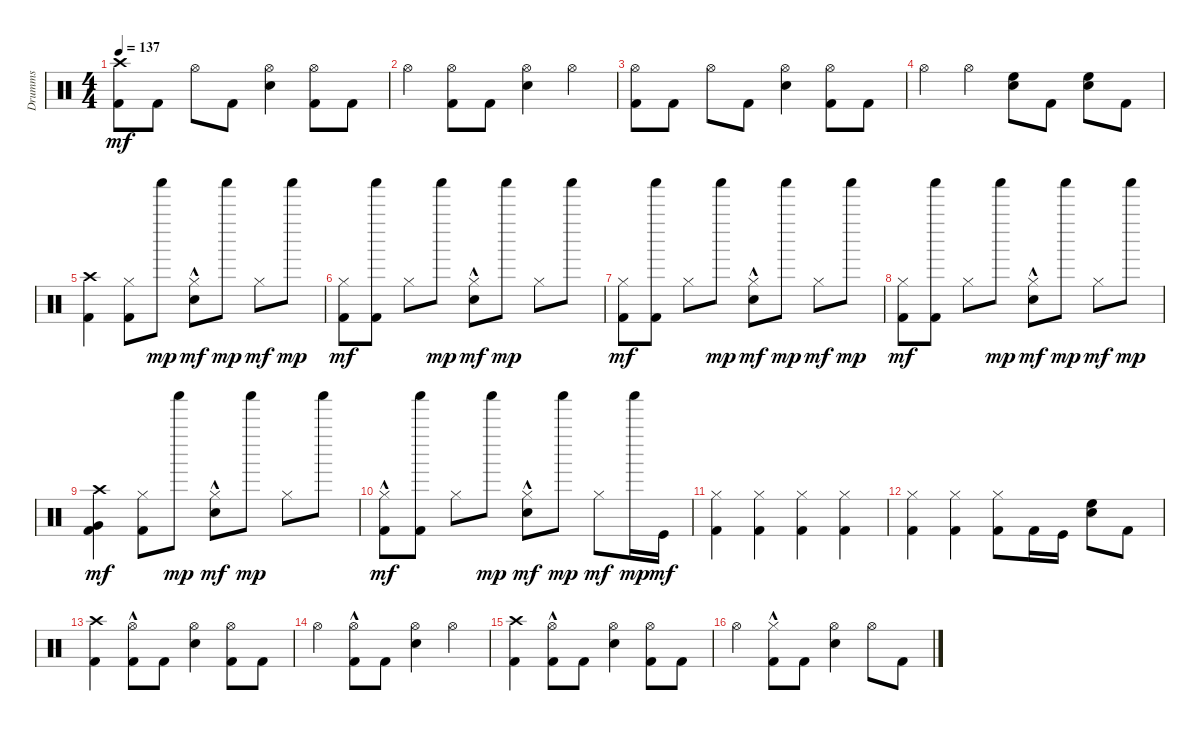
\track ("Drumms" "Drumms") {instrument percussion}
\staff {score}
\articulation defaults
\ts (4 4)
\tempo 137
\clef neutral
\ks c
("Crash high (hit)" "Kick (hit) 2").8{dy mf} "Kick (hit) 2".8 "Hi-Hat (open)".8 "Kick (hit) 2".8 ("Snare (hit) 2" "Hi-Hat (open)").4 ("Hi-Hat (open)" "Kick (hit) 2").8 "Kick (hit) 2".8 |
"Hi-Hat (open)".4 ("Hi-Hat (open)" "Kick (hit) 2").8 "Kick (hit) 2".8 ("Hi-Hat (open)" "Snare (hit) 2").4 "Hi-Hat (open)".4 |
("Hi-Hat (open)" "Kick (hit) 2").8 "Kick (hit) 2".8 "Hi-Hat (open)".8 "Kick (hit) 2".8 ("Hi-Hat (open)" "Snare (hit) 2").4 ("Hi-Hat (open)" "Kick (hit) 2").8 "Kick (hit) 2".8 |
"Hi-Hat (open)".4 "Hi-Hat (open)".4 ("High Floor Tom (hit)" "Snare (hit) 2").8 "Kick (hit) 2".8 ("Snare (hit) 2" "High Floor Tom (hit)").8 "Kick (hit) 2".8 |
\section ("" "")
("Crash high (hit)" "Kick (hit) 2").4 ("Hi-Hat (closed)" "Kick (hit) 2").8 "Shaker (hit)".8{dy mp} ("Hi-Hat (closed)"{hac} "Snare (hit) 2").8{dy mf} "Shaker (hit)".8{dy mp} "Hi-Hat (closed)".8{dy mf} "Shaker (hit)".8{dy mp} |
("Hi-Hat (closed)" "Kick (hit) 2").8{dy mf} ("Shaker (hit)" "Kick (hit) 2").8 "Hi-Hat (closed)".8 "Shaker (hit)".8{dy mp} ("Hi-Hat (closed)"{hac} "Snare (hit) 2").8{dy mf} "Shaker (hit)".8{dy mp} "Hi-Hat (closed)".8 "Shaker (hit)".8 |
("Hi-Hat (closed)" "Kick (hit) 2").8{dy mf} ("Shaker (hit)" "Kick (hit) 2").8 "Hi-Hat (closed)".8 "Shaker (hit)".8{dy mp} ("Hi-Hat (closed)"{hac} "Snare (hit) 2").8{dy mf} "Shaker (hit)".8{dy mp} "Hi-Hat (closed)".8{dy mf} "Shaker (hit)".8{dy mp} |
("Hi-Hat (closed)" "Kick (hit) 2").8{dy mf} ("Shaker (hit)" "Kick (hit) 2").8 "Hi-Hat (closed)".8 "Shaker (hit)".8{dy mp} ("Hi-Hat (closed)"{hac} "Snare (hit) 2").8{dy mf} "Shaker (hit)".8{dy mp} "Hi-Hat (closed)".8{dy mf} "Shaker (hit)".8{dy mp} |
("Very Low Tom (hit)" "Crash high (hit)" "Kick (hit) 2").4{dy mf} ("Hi-Hat (closed)" "Kick (hit) 2").8 "Shaker (hit)".8{dy mp} ("Hi-Hat (closed)"{hac} "Snare (hit) 2").8{dy mf} "Shaker (hit)".8{dy mp} "Hi-Hat (closed)".8 "Shaker (hit)".8 |
("Hi-Hat (closed)"{hac} "Kick (hit) 2").8{dy mf} ("Shaker (hit)" "Kick (hit) 2").8 "Hi-Hat (closed)".8 "Shaker (hit)".8{dy mp} ("Hi-Hat (closed)"{hac} "Snare (hit) 2").8{dy mf} "Shaker (hit)".8{dy mp} "Hi-Hat (closed)".8{dy mf} "Shaker (hit)".16{dy mp} "Kick (hit)".16{dy mf} |
("Kick (hit) 2" "Hi-Hat (closed)").4 ("Kick (hit) 2" "Hi-Hat (closed)").4 ("Kick (hit) 2" "Hi-Hat (closed)").4 ("Kick (hit) 2" "Hi-Hat (closed)").4 |
("Hi-Hat (closed)" "Kick (hit) 2").4 ("Kick (hit) 2" "Hi-Hat (closed)").4 ("Kick (hit) 2" "Hi-Hat (closed)").8 "Kick (hit) 2".16 "Kick (hit)".16 ("Snare (hit) 2" "High Floor Tom (hit)").8 "Kick (hit) 2".8 |
\section ("" "")
("Crash high (hit)" "Kick (hit) 2").4 ("Hi-Hat (open)"{hac} "Kick (hit) 2").8 "Kick (hit) 2".8 ("Hi-Hat (open)" "Snare (hit) 2").4 ("Hi-Hat (open)" "Kick (hit) 2").8 "Kick (hit) 2".8 |
"Hi-Hat (open)".4 ("Hi-Hat (open)"{hac} "Kick (hit) 2").8 "Kick (hit) 2".8 ("Hi-Hat (open)" "Snare (hit) 2").4 "Hi-Hat (open)".4 |
("Crash high (hit)" "Kick (hit) 2").4 ("Kick (hit) 2"{hac} "Hi-Hat (open)").8 "Kick (hit) 2".8 ("Snare (hit) 2" "Hi-Hat (open)").4 ("Hi-Hat (open)" "Kick (hit) 2").8 "Kick (hit) 2".8 |
"Hi-Hat (open)".4 ("Kick (hit) 2"{hac} "Hi-Hat (closed)").8 "Kick (hit) 2".8 ("Hi-Hat (open)" "Snare (hit) 2").4 "Hi-Hat (open)".8 "Kick (hit) 2".8
